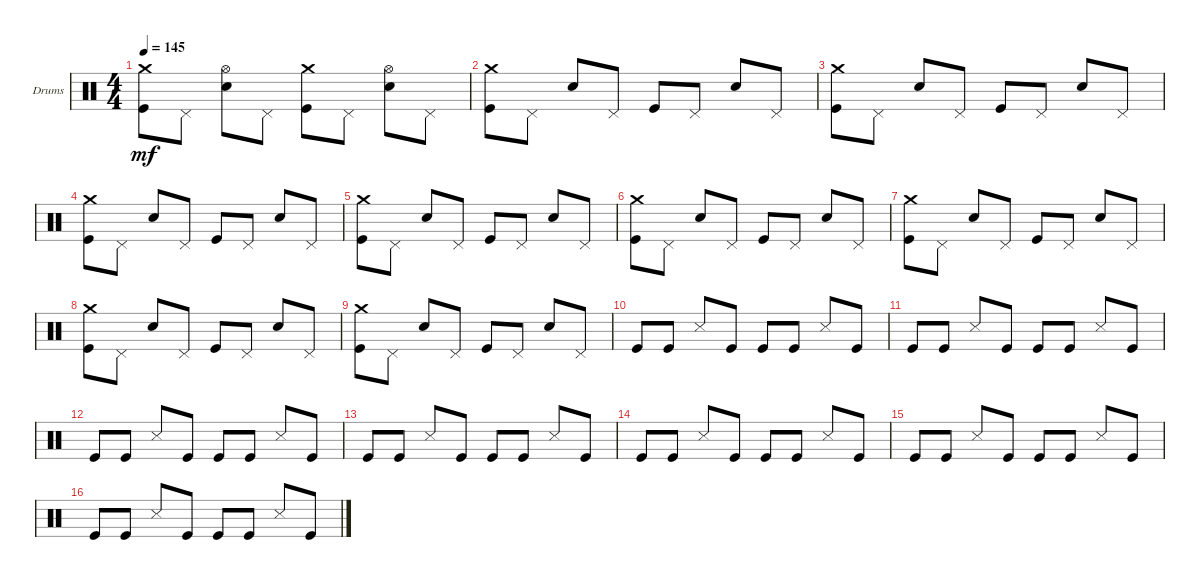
\defaultSystemsLayout 4
\bracketExtendMode groupsimilarinstruments
\firstSystemTrackNameOrientation horizontal
\otherSystemsTrackNameOrientation horizontal
\track ("Е. Кулаков" "Drums") {instrument percussion}
\staff {score}
\articulation defaults
\ts (4 4)
\tempo 145
\clef neutral
\ks c
("Kick (hit)" "Crash medium (hit)").8{dy mf} "Pedal Hi-Hat (hit)".8 ("Snare (hit) 2" "Hi-Hat (open)").8 "Pedal Hi-Hat (hit)".8 ("Kick (hit)" "Crash medium (hit)").8 "Pedal Hi-Hat (hit)".8 ("Snare (hit) 2" "Hi-Hat (open)").8 "Pedal Hi-Hat (hit)".8 |
("Kick (hit)" "Crash medium (hit)").8 "Pedal Hi-Hat (hit)".8 "Snare (hit) 2".8 "Pedal Hi-Hat (hit)".8 "Kick (hit)".8 "Pedal Hi-Hat (hit)".8 "Snare (hit) 2".8 "Pedal Hi-Hat (hit)".8 |
("Kick (hit)" "Crash medium (hit)").8 "Pedal Hi-Hat (hit)".8 "Snare (hit) 2".8 "Pedal Hi-Hat (hit)".8 "Kick (hit)".8 "Pedal Hi-Hat (hit)".8 "Snare (hit) 2".8 "Pedal Hi-Hat (hit)".8 |
("Kick (hit)" "Crash medium (hit)").8 "Pedal Hi-Hat (hit)".8 "Snare (hit) 2".8 "Pedal Hi-Hat (hit)".8 "Kick (hit)".8 "Pedal Hi-Hat (hit)".8 "Snare (hit) 2".8 "Pedal Hi-Hat (hit)".8 |
("Kick (hit)" "Crash medium (hit)").8 "Pedal Hi-Hat (hit)".8 "Snare (hit) 2".8 "Pedal Hi-Hat (hit)".8 "Kick (hit)".8 "Pedal Hi-Hat (hit)".8 "Snare (hit) 2".8 "Pedal Hi-Hat (hit)".8 |
("Kick (hit)" "Crash medium (hit)").8 "Pedal Hi-Hat (hit)".8 "Snare (hit) 2".8 "Pedal Hi-Hat (hit)".8 "Kick (hit)".8 "Pedal Hi-Hat (hit)".8 "Snare (hit) 2".8 "Pedal Hi-Hat (hit)".8 |
("Kick (hit)" "Crash medium (hit)").8 "Pedal Hi-Hat (hit)".8 "Snare (hit) 2".8 "Pedal Hi-Hat (hit)".8 "Kick (hit)".8 "Pedal Hi-Hat (hit)".8 "Snare (hit) 2".8 "Pedal Hi-Hat (hit)".8 |
("Kick (hit)" "Crash medium (hit)").8 "Pedal Hi-Hat (hit)".8 "Snare (hit) 2".8 "Pedal Hi-Hat (hit)".8 "Kick (hit)".8 "Pedal Hi-Hat (hit)".8 "Snare (hit) 2".8 "Pedal Hi-Hat (hit)".8 |
("Kick (hit)" "Crash medium (hit)").8 "Pedal Hi-Hat (hit)".8 "Snare (hit) 2".8 "Pedal Hi-Hat (hit)".8 "Kick (hit)".8 "Pedal Hi-Hat (hit)".8 "Snare (hit) 2".8 "Pedal Hi-Hat (hit)".8 |
"Kick (hit)".8 "Kick (hit)".8 "Snare (side stick) 3".8 "Kick (hit)".8 "Kick (hit)".8 "Kick (hit)".8 "Snare (side stick) 3".8 "Kick (hit)".8 |
"Kick (hit)".8 "Kick (hit)".8 "Snare (side stick) 3".8 "Kick (hit)".8 "Kick (hit)".8 "Kick (hit)".8 "Snare (side stick) 3".8 "Kick (hit)".8 |
"Kick (hit)".8 "Kick (hit)".8 "Snare (side stick) 3".8 "Kick (hit)".8 "Kick (hit)".8 "Kick (hit)".8 "Snare (side stick) 3".8 "Kick (hit)".8 |
"Kick (hit)".8 "Kick (hit)".8 "Snare (side stick) 3".8 "Kick (hit)".8 "Kick (hit)".8 "Kick (hit)".8 "Snare (side stick) 3".8 "Kick (hit)".8 |
"Kick (hit)".8 "Kick (hit)".8 "Snare (side stick) 3".8 "Kick (hit)".8 "Kick (hit)".8 "Kick (hit)".8 "Snare (side stick) 3".8 "Kick (hit)".8 |
"Kick (hit)".8 "Kick (hit)".8 "Snare (side stick) 3".8 "Kick (hit)".8 "Kick (hit)".8 "Kick (hit)".8 "Snare (side stick) 3".8 "Kick (hit)".8 |
"Kick (hit)".8 "Kick (hit)".8 "Snare (side stick) 3".8 "Kick (hit)".8 "Kick (hit)".8 "Kick (hit)".8 "Snare (side stick) 3".8 "Kick (hit)".8
